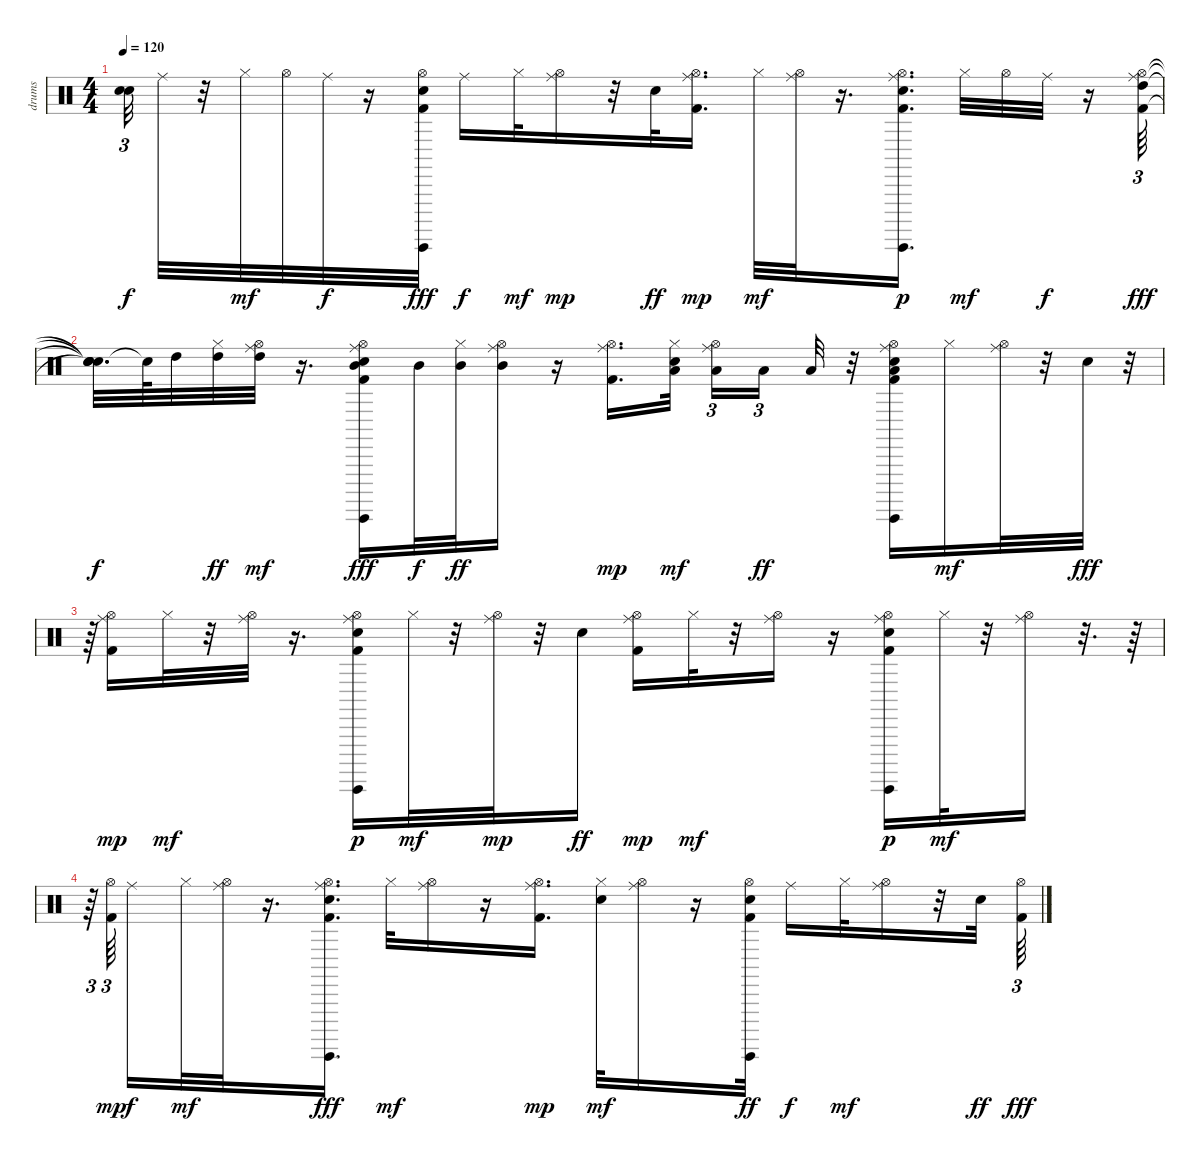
\track ("drums                               " "drums     ") {instrument percussion}
\staff {score}
\articulation defaults
\ts (4 4)
\tempo 120
\clef neutral
\ks c
("Snare (hit)"{t} "Snare (hit)"{t}).32{tu (3 2) dy f} "Ride (middle)".32 r.32 "Hi-Hat (closed)".32{dy mf} "Hi-Hat (open)".32 "Ride (middle)".32{dy f} r.16 ("Guiro (hit)" "Electric Snare (hit)" "Hi-Hat (open)" "Kick (hit) 2").32{dy fff} "Ride (middle)".16{dy f} "Hi-Hat (closed)".32{dy mf} ("Hi-Hat (open)" "Ride (middle)").16{dy mp} r.32 "Electric Snare (hit)".32{dy ff} ("Ride (middle)" "Kick (hit) 2" "Hi-Hat (open)").16{d dy mp} "Hi-Hat (closed)".32{dy mf} ("Hi-Hat (open)" "Ride (middle)").32 r.16{d} ("Kick (hit) 2" "Electric Snare (hit)" "Hi-Hat (open)" "Guiro (hit)" "Ride (middle)").16{d dy p} "Hi-Hat (closed)".32{dy mf} "Hi-Hat (open)".32 "Ride (middle)".32{dy f} r.16 ("Hi-Hat (open)" "High Tom (hit)" "Kick (hit) 2" "Ride (middle)").64{tu (3 2) dy fff} |
("Snare (hit)"{t} "Snare (hit)"{t} "Snare (hit)"{t} "Snare (hit)"{t}).32{d dy f} "Snare (hit)"{t}.64 "High Tom (hit)".32 ("Hi-Hat (closed)" "High Tom (hit)").32{dy ff} ("Ride (middle)" "High Tom (hit)" "Hi-Hat (open)").32{dy mf} r.16{d} ("Guiro (hit)" "Hi-Hat (open)" "Mid Tom (hit)" "Electric Snare (hit)" "Kick (hit) 2" "Ride (middle)").16{dy fff} "Mid Tom (hit)".32{dy f} ("Hi-Hat (closed)" "Mid Tom (hit)").32{dy ff} ("Ride (middle)" "Hi-Hat (open)" "Mid Tom (hit)").16 r.16 ("Ride (middle)" "Kick (hit) 2" "Hi-Hat (open)").16{d dy mp} ("Low Tom (hit)" "Electric Snare (hit)" "Hi-Hat (closed)").32{dy mf beam splitsecondary} ("Ride (middle)" "Low Tom (hit)" "Hi-Hat (open)").16{tu (3 2)} "Low Tom (hit)".16{tu (3 2) dy ff beam splitsecondary} "Low Tom (hit)".32 r.32 ("Ride (middle)" "Kick (hit) 2" "Hi-Hat (open)" "Electric Snare (hit)" "Guiro (hit)" "Low Floor Tom (hit)").16 "Hi-Hat (closed)".16{dy mf} ("Ride (middle)" "Hi-Hat (open)").32 r.32 "Electric Snare (hit)".32{dy fff} r.32{tu (3 2)} |
r.64{tu (3 2)} ("Kick (hit) 2" "Ride (middle)" "Hi-Hat (open)").16{dy mp} "Hi-Hat (closed)".32{dy mf} r.32 ("Ride (middle)" "Hi-Hat (open)").32 r.16{d} ("Kick (hit) 2" "Electric Snare (hit)" "Guiro (hit)" "Hi-Hat (open)" "Ride (middle)").16{dy p} "Hi-Hat (closed)".32{dy mf} r.32 ("Hi-Hat (open)" "Ride (middle)").32{dy mp} r.32 "Electric Snare (hit)".16{dy ff} ("Kick (hit) 2" "Hi-Hat (open)" "Ride (middle)").16{dy mp} "Hi-Hat (closed)".32{dy mf} r.32 ("Ride (middle)" "Hi-Hat (open)").16 r.16 ("Kick (hit) 2" "Electric Snare (hit)" "Hi-Hat (open)" "Guiro (hit)" "Ride (middle)").16{dy p} "Hi-Hat (closed)".32{dy mf} r.32 ("Hi-Hat (open)" "Ride (middle)").16 r.32{d} r.64 |
r.64{tu (3 2)} ("Kick (hit) 2" "Hi-Hat (open)").64{tu (3 2) dy mp beam splitsecondary} "Ride (middle)".16{dy f} "Hi-Hat (closed)".32{dy mf} ("Hi-Hat (open)" "Ride (middle)").32 r.16{d} ("Electric Snare (hit)" "Guiro (hit)" "Hi-Hat (open)" "Kick (hit) 2" "Ride (middle)").16{d dy fff} "Hi-Hat (closed)".32{dy mf} ("Hi-Hat (open)" "Ride (middle)").16 r.16 ("Ride (middle)" "Kick (hit) 2" "Hi-Hat (open)").16{d dy mp} ("Electric Snare (hit)" "Hi-Hat (closed)").32{dy mf} ("Hi-Hat (open)" "Ride (middle)").16 r.16 ("Guiro (hit)" "Hi-Hat (open)" "Kick (hit) 2" "Electric Snare (hit)").32{dy ff} "Ride (middle)".16{dy f} "Hi-Hat (closed)".32{dy mf} ("Hi-Hat (open)" "Ride (middle)").16 r.32 "Electric Snare (hit)".32{dy ff} ("Hi-Hat (open)" "Kick (hit) 2").64{tu (3 2) dy fff}
